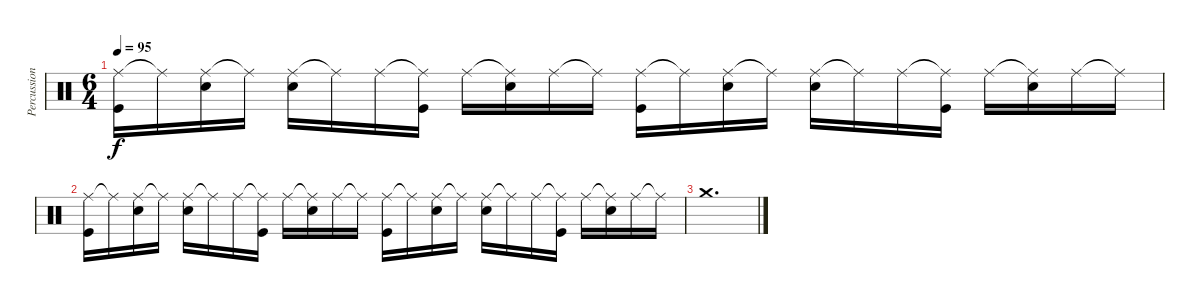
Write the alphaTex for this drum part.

\track ("Percussion" "Percussion") {instrument percussion}
\staff {score}
\articulation defaults
\ts (6 4)
\tempo 95
\clef neutral
\ks c
("Ride (middle)" "Kick (hit)").16{dy f} "Ride (middle)"{t}.16 ("Ride (middle)" "Snare (hit) 2").16 "Ride (middle)"{t}.16 ("Ride (middle)" "Snare (hit) 2").16 "Ride (middle)"{t}.16 "Ride (middle)".16 ("Ride (middle)"{t} "Kick (hit)").16 "Ride (middle)".16 ("Ride (middle)"{t} "Snare (hit) 2").16 "Ride (middle)".16 "Ride (middle)"{t}.16 ("Ride (middle)" "Kick (hit)").16 "Ride (middle)"{t}.16 ("Ride (middle)" "Snare (hit) 2").16 "Ride (middle)"{t}.16 ("Ride (middle)" "Snare (hit) 2").16 "Ride (middle)"{t}.16 "Ride (middle)".16 ("Ride (middle)"{t} "Kick (hit)").16 "Ride (middle)".16 ("Ride (middle)"{t} "Snare (hit) 2").16 "Ride (middle)".16 "Ride (middle)"{t}.16 |
("Ride (middle)" "Kick (hit)").16 "Ride (middle)"{t}.16 ("Ride (middle)" "Snare (hit) 2").16 "Ride (middle)"{t}.16 ("Ride (middle)" "Snare (hit) 2").16 "Ride (middle)"{t}.16 "Ride (middle)".16 ("Ride (middle)"{t} "Kick (hit)").16 "Ride (middle)".16 ("Ride (middle)"{t} "Snare (hit) 2").16 "Ride (middle)".16 "Ride (middle)"{t}.16 ("Ride (middle)" "Kick (hit)").16 "Ride (middle)"{t}.16 ("Ride (middle)" "Snare (hit) 2").16 "Ride (middle)"{t}.16 ("Ride (middle)" "Snare (hit) 2").16 "Ride (middle)"{t}.16 "Ride (middle)".16 ("Ride (middle)"{t} "Kick (hit)").16 "Ride (middle)".16 ("Ride (middle)"{t} "Snare (hit) 2").16 "Ride (middle)".16 "Ride (middle)"{t}.16 |
"Crash medium (hit)".1{d}
